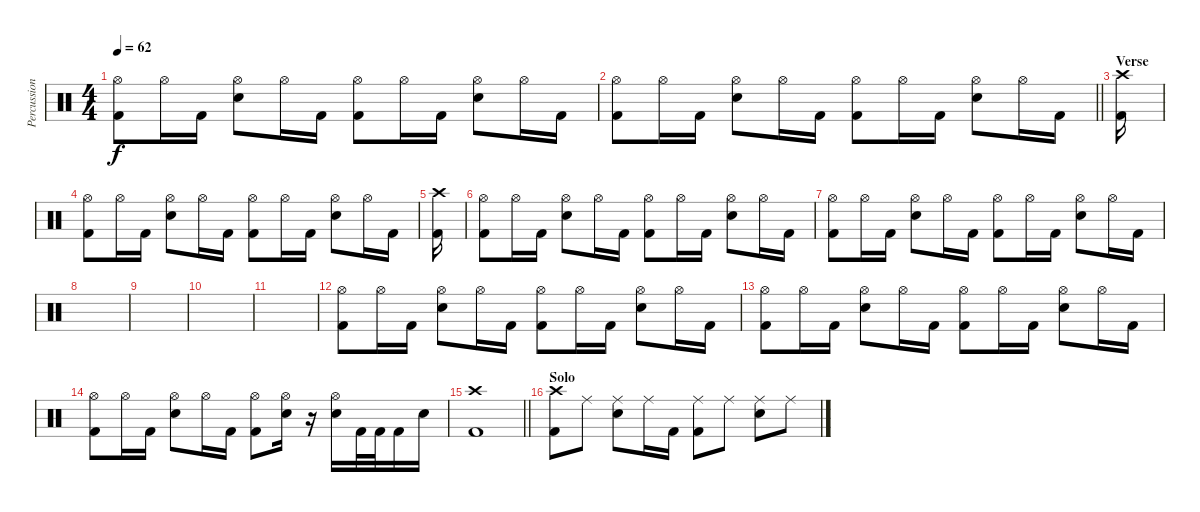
\track ("Percussion" "Percussion") {instrument percussion}
\staff {score}
\articulation defaults
\ts (4 4)
\tempo 62
\clef neutral
\ks c
("Hi-Hat (open)" "Kick (hit) 2").8{dy f} "Hi-Hat (open)".16 "Kick (hit) 2".16 ("Hi-Hat (open)" "Snare (hit) 2").8 "Hi-Hat (open)".16 "Kick (hit) 2".16 ("Hi-Hat (open)" "Kick (hit) 2").8 "Hi-Hat (open)".16 "Kick (hit) 2".16 ("Hi-Hat (open)" "Snare (hit) 2").8 "Hi-Hat (open)".16 "Kick (hit) 2".16 |
\barLineRight lightlight
("Hi-Hat (open)" "Kick (hit) 2").8 "Hi-Hat (open)".16 "Kick (hit) 2".16 ("Hi-Hat (open)" "Snare (hit) 2").8 "Hi-Hat (open)".16 "Kick (hit) 2".16 ("Hi-Hat (open)" "Kick (hit) 2").8 "Hi-Hat (open)".16 "Kick (hit) 2".16 ("Hi-Hat (open)" "Snare (hit) 2").8 "Hi-Hat (open)".16 "Kick (hit) 2".16 |
\section ("" "Verse")
("Crash high (hit)" "Kick (hit) 2").16 |
("Hi-Hat (open)" "Kick (hit) 2").8 "Hi-Hat (open)".16 "Kick (hit) 2".16 ("Hi-Hat (open)" "Snare (hit) 2").8 "Hi-Hat (open)".16 "Kick (hit) 2".16 ("Hi-Hat (open)" "Kick (hit) 2").8 "Hi-Hat (open)".16 "Kick (hit) 2".16 ("Hi-Hat (open)" "Snare (hit) 2").8 "Hi-Hat (open)".16 "Kick (hit) 2".16 |
("Crash high (hit)" "Kick (hit) 2").16 |
("Hi-Hat (open)" "Kick (hit) 2").8 "Hi-Hat (open)".16 "Kick (hit) 2".16 ("Hi-Hat (open)" "Snare (hit) 2").8 "Hi-Hat (open)".16 "Kick (hit) 2".16 ("Hi-Hat (open)" "Kick (hit) 2").8 "Hi-Hat (open)".16 "Kick (hit) 2".16 ("Hi-Hat (open)" "Snare (hit) 2").8 "Hi-Hat (open)".16 "Kick (hit) 2".16 |
("Hi-Hat (open)" "Kick (hit) 2").8 "Hi-Hat (open)".16 "Kick (hit) 2".16 ("Hi-Hat (open)" "Snare (hit) 2").8 "Hi-Hat (open)".16 "Kick (hit) 2".16 ("Hi-Hat (open)" "Kick (hit) 2").8 "Hi-Hat (open)".16 "Kick (hit) 2".16 ("Hi-Hat (open)" "Snare (hit) 2").8 "Hi-Hat (open)".16 "Kick (hit) 2".16 |
|
|
|
|
("Hi-Hat (open)" "Kick (hit) 2").8 "Hi-Hat (open)".16 "Kick (hit) 2".16 ("Hi-Hat (open)" "Snare (hit) 2").8 "Hi-Hat (open)".16 "Kick (hit) 2".16 ("Hi-Hat (open)" "Kick (hit) 2").8 "Hi-Hat (open)".16 "Kick (hit) 2".16 ("Hi-Hat (open)" "Snare (hit) 2").8 "Hi-Hat (open)".16 "Kick (hit) 2".16 |
("Hi-Hat (open)" "Kick (hit) 2").8 "Hi-Hat (open)".16 "Kick (hit) 2".16 ("Hi-Hat (open)" "Snare (hit) 2").8 "Hi-Hat (open)".16 "Kick (hit) 2".16 ("Hi-Hat (open)" "Kick (hit) 2").8 "Hi-Hat (open)".16 "Kick (hit) 2".16 ("Hi-Hat (open)" "Snare (hit) 2").8 "Hi-Hat (open)".16 "Kick (hit) 2".16 |
("Hi-Hat (open)" "Kick (hit) 2").8 "Hi-Hat (open)".16 "Kick (hit) 2".16 ("Hi-Hat (open)" "Snare (hit) 2").8 "Hi-Hat (open)".16 "Kick (hit) 2".16 ("Hi-Hat (open)" "Kick (hit) 2").8 ("Hi-Hat (open)" "Snare (hit) 2").16 r.16 ("Hi-Hat (open)" "Snare (hit) 2").16 "Kick (hit) 2".32 "Kick (hit) 2".32 "Kick (hit) 2".16 "Snare (hit) 2".16 |
\barLineRight lightlight
("Crash high (hit)" "Kick (hit) 2").1 |
\section ("" "Solo")
("Crash high (hit)" "Kick (hit) 2").8 "Ride (middle)".8 ("Ride (middle)" "Snare (hit) 2").8 "Ride (middle)".16 "Kick (hit) 2".16 ("Ride (middle)" "Kick (hit) 2").8 "Ride (middle)".8 ("Ride (middle)" "Snare (hit) 2").8 "Ride (middle)".8
